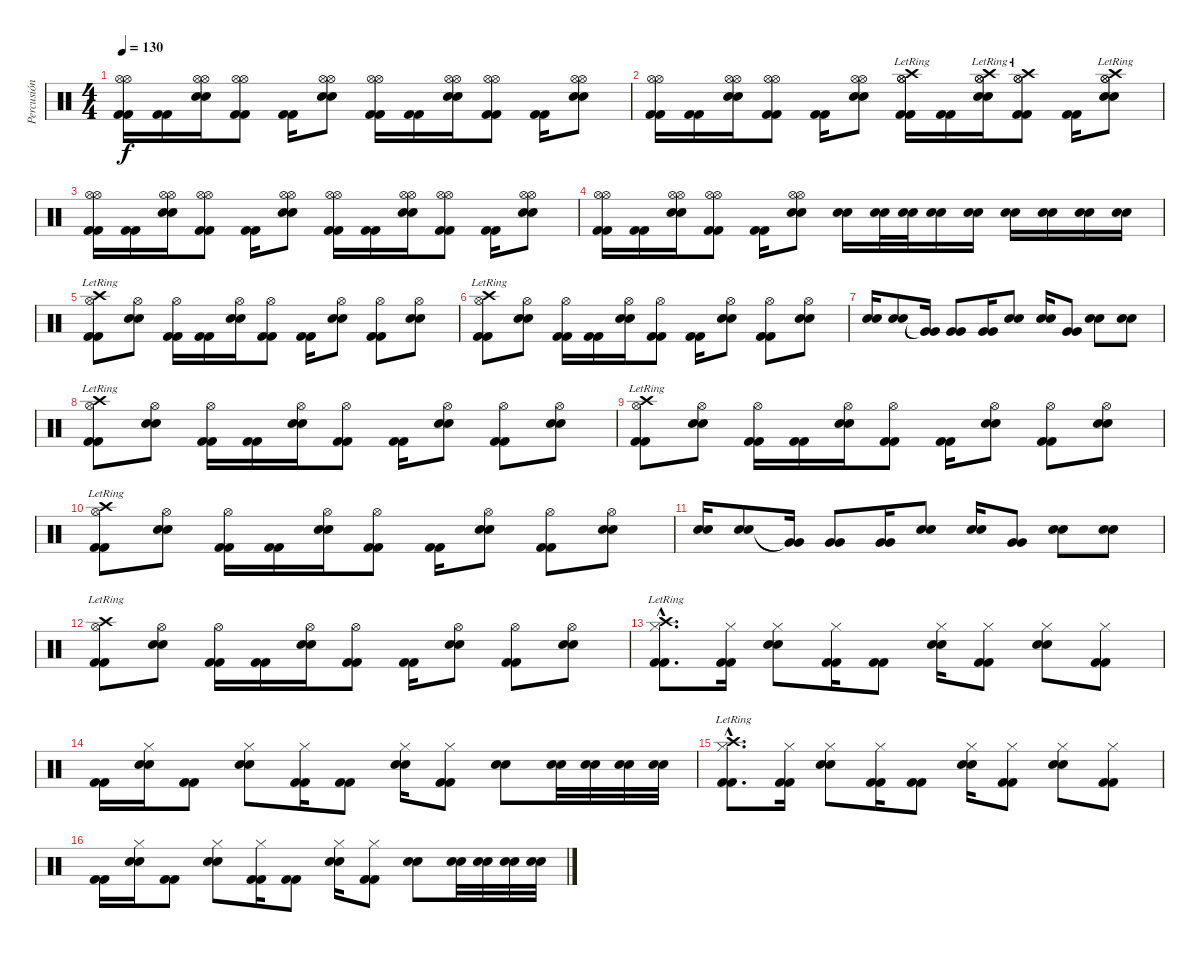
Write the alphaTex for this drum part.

\track ("Percusión" "Percusión") {instrument percussion}
\staff {score}
\articulation defaults
\ts (4 4)
\tempo 130
\clef neutral
\ks c
("Kick (hit) 2" "Kick (hit) 2" "Hi-Hat (open)" "Hi-Hat (open)").16{dy f} ("Kick (hit) 2" "Kick (hit) 2").16 ("Snare (hit) 2" "Snare (hit) 2" "Hi-Hat (open)" "Hi-Hat (open)").16 ("Kick (hit) 2" "Kick (hit) 2" "Hi-Hat (open)" "Hi-Hat (open)").8 ("Kick (hit) 2" "Kick (hit) 2").16 ("Snare (hit) 2" "Snare (hit) 2" "Hi-Hat (open)" "Hi-Hat (open)").8 ("Kick (hit) 2" "Kick (hit) 2" "Hi-Hat (open)" "Hi-Hat (open)").16 ("Kick (hit) 2" "Kick (hit) 2").16 ("Snare (hit) 2" "Snare (hit) 2" "Hi-Hat (open)" "Hi-Hat (open)").16 ("Kick (hit) 2" "Kick (hit) 2" "Hi-Hat (open)" "Hi-Hat (open)").8 ("Kick (hit) 2" "Kick (hit) 2").16 ("Snare (hit) 2" "Snare (hit) 2" "Hi-Hat (open)" "Hi-Hat (open)").8 |
("Kick (hit) 2" "Kick (hit) 2" "Hi-Hat (open)" "Hi-Hat (open)").16 ("Kick (hit) 2" "Kick (hit) 2").16 ("Snare (hit) 2" "Snare (hit) 2" "Hi-Hat (open)" "Hi-Hat (open)").16 ("Kick (hit) 2" "Kick (hit) 2" "Hi-Hat (open)" "Hi-Hat (open)").8 ("Kick (hit) 2" "Kick (hit) 2").16 ("Snare (hit) 2" "Snare (hit) 2" "Hi-Hat (open)" "Hi-Hat (open)").8 ("Kick (hit) 2" "Kick (hit) 2" "Hi-Hat (open)" "Hi-Hat (open)" "Crash high (hit)"{lr}).16 ("Kick (hit) 2" "Kick (hit) 2").16 ("Snare (hit) 2" "Snare (hit) 2" "Hi-Hat (open)" "Hi-Hat (open)" "Crash high (hit)"{lr}).16 ("Kick (hit) 2" "Kick (hit) 2" "Hi-Hat (open)" "Hi-Hat (open)" "Crash high (hit)"{lr}).8 ("Kick (hit) 2" "Kick (hit) 2").16 ("Snare (hit) 2" "Snare (hit) 2" "Hi-Hat (open)" "Hi-Hat (open)" "Crash high (hit)"{lr}).8 |
("Kick (hit) 2" "Kick (hit) 2" "Hi-Hat (open)" "Hi-Hat (open)").16 ("Kick (hit) 2" "Kick (hit) 2").16 ("Snare (hit) 2" "Snare (hit) 2" "Hi-Hat (open)" "Hi-Hat (open)").16 ("Kick (hit) 2" "Kick (hit) 2" "Hi-Hat (open)" "Hi-Hat (open)").8 ("Kick (hit) 2" "Kick (hit) 2").16 ("Snare (hit) 2" "Snare (hit) 2" "Hi-Hat (open)" "Hi-Hat (open)").8 ("Kick (hit) 2" "Kick (hit) 2" "Hi-Hat (open)" "Hi-Hat (open)").16 ("Kick (hit) 2" "Kick (hit) 2").16 ("Snare (hit) 2" "Snare (hit) 2" "Hi-Hat (open)" "Hi-Hat (open)").16 ("Kick (hit) 2" "Kick (hit) 2" "Hi-Hat (open)" "Hi-Hat (open)").8 ("Kick (hit) 2" "Kick (hit) 2").16 ("Snare (hit) 2" "Snare (hit) 2" "Hi-Hat (open)" "Hi-Hat (open)").8 |
("Kick (hit) 2" "Kick (hit) 2" "Hi-Hat (open)" "Hi-Hat (open)").16 ("Kick (hit) 2" "Kick (hit) 2").16 ("Snare (hit) 2" "Snare (hit) 2" "Hi-Hat (open)" "Hi-Hat (open)").16 ("Kick (hit) 2" "Kick (hit) 2" "Hi-Hat (open)" "Hi-Hat (open)").8 ("Kick (hit) 2" "Kick (hit) 2").16 ("Snare (hit) 2" "Snare (hit) 2" "Hi-Hat (open)" "Hi-Hat (open)").8 ("Snare (hit) 2" "Snare (hit) 2").16 ("Snare (hit) 2" "Snare (hit) 2").32 ("Snare (hit) 2" "Snare (hit) 2").32 ("Snare (hit) 2" "Snare (hit) 2").16 ("Snare (hit) 2" "Snare (hit) 2").16 ("Snare (hit) 2" "Snare (hit) 2").16 ("Snare (hit) 2" "Snare (hit) 2").16 ("Snare (hit) 2" "Snare (hit) 2").16 ("Snare (hit) 2" "Snare (hit) 2").16 |
("Kick (hit) 2" "Kick (hit) 2" "Hi-Hat (open)" "Crash high (hit)"{lr}).8 ("Snare (hit) 2" "Snare (hit) 2" "Hi-Hat (open)").8 ("Kick (hit) 2" "Kick (hit) 2" "Hi-Hat (open)").16 ("Kick (hit) 2" "Kick (hit) 2").16 ("Snare (hit) 2" "Snare (hit) 2" "Hi-Hat (open)").16 ("Kick (hit) 2" "Kick (hit) 2" "Hi-Hat (open)").8 ("Kick (hit) 2" "Kick (hit) 2").16 ("Snare (hit) 2" "Snare (hit) 2" "Hi-Hat (open)").8 ("Kick (hit) 2" "Kick (hit) 2" "Hi-Hat (open)").8 ("Snare (hit) 2" "Snare (hit) 2" "Hi-Hat (open)").8 |
("Kick (hit) 2" "Kick (hit) 2" "Hi-Hat (open)" "Crash high (hit)"{lr}).8 ("Snare (hit) 2" "Snare (hit) 2" "Hi-Hat (open)").8 ("Kick (hit) 2" "Kick (hit) 2" "Hi-Hat (open)").16 ("Kick (hit) 2" "Kick (hit) 2").16 ("Snare (hit) 2" "Snare (hit) 2" "Hi-Hat (open)").16 ("Kick (hit) 2" "Kick (hit) 2" "Hi-Hat (open)").8 ("Kick (hit) 2" "Kick (hit) 2").16 ("Snare (hit) 2" "Snare (hit) 2" "Hi-Hat (open)").8 ("Kick (hit) 2" "Kick (hit) 2" "Hi-Hat (open)").8 ("Snare (hit) 2" "Snare (hit) 2" "Hi-Hat (open)").8 |
("Snare (hit) 2" "Snare (hit) 2").16 ("Snare (hit) 2" "Snare (hit) 2").8 ("Very Low Tom (hit)"{t} "Very Low Tom (hit)"{t}).16 ("Very Low Tom (hit)" "Very Low Tom (hit)").8 ("Very Low Tom (hit)" "Very Low Tom (hit)").16 ("Snare (hit) 2" "Snare (hit) 2").8 ("Snare (hit) 2" "Snare (hit) 2").16 ("Very Low Tom (hit)" "Very Low Tom (hit)").8 ("Snare (hit) 2" "Snare (hit) 2").8 ("Snare (hit) 2" "Snare (hit) 2").8 |
("Kick (hit) 2" "Kick (hit) 2" "Hi-Hat (open)" "Crash high (hit)"{lr}).8 ("Snare (hit) 2" "Snare (hit) 2" "Hi-Hat (open)").8 ("Kick (hit) 2" "Kick (hit) 2" "Hi-Hat (open)").16 ("Kick (hit) 2" "Kick (hit) 2").16 ("Snare (hit) 2" "Snare (hit) 2" "Hi-Hat (open)").16 ("Kick (hit) 2" "Kick (hit) 2" "Hi-Hat (open)").8 ("Kick (hit) 2" "Kick (hit) 2").16 ("Snare (hit) 2" "Snare (hit) 2" "Hi-Hat (open)").8 ("Kick (hit) 2" "Kick (hit) 2" "Hi-Hat (open)").8 ("Snare (hit) 2" "Snare (hit) 2" "Hi-Hat (open)").8 |
("Kick (hit) 2" "Kick (hit) 2" "Hi-Hat (open)" "Crash high (hit)"{lr}).8 ("Snare (hit) 2" "Snare (hit) 2" "Hi-Hat (open)").8 ("Kick (hit) 2" "Kick (hit) 2" "Hi-Hat (open)").16 ("Kick (hit) 2" "Kick (hit) 2").16 ("Snare (hit) 2" "Snare (hit) 2" "Hi-Hat (open)").16 ("Kick (hit) 2" "Kick (hit) 2" "Hi-Hat (open)").8 ("Kick (hit) 2" "Kick (hit) 2").16 ("Snare (hit) 2" "Snare (hit) 2" "Hi-Hat (open)").8 ("Kick (hit) 2" "Kick (hit) 2" "Hi-Hat (open)").8 ("Snare (hit) 2" "Snare (hit) 2" "Hi-Hat (open)").8 |
("Kick (hit) 2" "Kick (hit) 2" "Hi-Hat (open)" "Crash high (hit)"{lr}).8 ("Snare (hit) 2" "Snare (hit) 2" "Hi-Hat (open)").8 ("Kick (hit) 2" "Kick (hit) 2" "Hi-Hat (open)").16 ("Kick (hit) 2" "Kick (hit) 2").16 ("Snare (hit) 2" "Snare (hit) 2" "Hi-Hat (open)").16 ("Kick (hit) 2" "Kick (hit) 2" "Hi-Hat (open)").8 ("Kick (hit) 2" "Kick (hit) 2").16 ("Snare (hit) 2" "Snare (hit) 2" "Hi-Hat (open)").8 ("Kick (hit) 2" "Kick (hit) 2" "Hi-Hat (open)").8 ("Snare (hit) 2" "Snare (hit) 2" "Hi-Hat (open)").8 |
("Snare (hit) 2" "Snare (hit) 2").16 ("Snare (hit) 2" "Snare (hit) 2").8 ("Very Low Tom (hit)"{t} "Very Low Tom (hit)"{t}).16 ("Very Low Tom (hit)" "Very Low Tom (hit)").8 ("Very Low Tom (hit)" "Very Low Tom (hit)").16 ("Snare (hit) 2" "Snare (hit) 2").8 ("Snare (hit) 2" "Snare (hit) 2").16 ("Very Low Tom (hit)" "Very Low Tom (hit)").8 ("Snare (hit) 2" "Snare (hit) 2").8 ("Snare (hit) 2" "Snare (hit) 2").8 |
("Kick (hit) 2" "Kick (hit) 2" "Hi-Hat (open)" "Crash high (hit)"{lr}).8 ("Snare (hit) 2" "Snare (hit) 2" "Hi-Hat (open)").8 ("Kick (hit) 2" "Kick (hit) 2" "Hi-Hat (open)").16 ("Kick (hit) 2" "Kick (hit) 2").16 ("Snare (hit) 2" "Snare (hit) 2" "Hi-Hat (open)").16 ("Kick (hit) 2" "Kick (hit) 2" "Hi-Hat (open)").8 ("Kick (hit) 2" "Kick (hit) 2").16 ("Snare (hit) 2" "Snare (hit) 2" "Hi-Hat (open)").8 ("Kick (hit) 2" "Kick (hit) 2" "Hi-Hat (open)").8 ("Snare (hit) 2" "Snare (hit) 2" "Hi-Hat (open)").8 |
("Kick (hit) 2"{hac} "Kick (hit) 2"{hac} "Hi-Hat (closed)"{hac} "Crash high (hit)"{hac lr}).8{d} ("Kick (hit) 2" "Kick (hit) 2" "Hi-Hat (closed)").16 ("Snare (hit) 2" "Snare (hit) 2" "Hi-Hat (closed)").8 ("Kick (hit) 2" "Kick (hit) 2" "Hi-Hat (closed)").16 ("Kick (hit) 2" "Kick (hit) 2").8 ("Snare (hit) 2" "Snare (hit) 2" "Hi-Hat (closed)").16 ("Kick (hit) 2" "Kick (hit) 2" "Hi-Hat (closed)").8 ("Snare (hit) 2" "Snare (hit) 2" "Hi-Hat (closed)").8 ("Kick (hit) 2" "Kick (hit) 2" "Hi-Hat (closed)").8 |
("Kick (hit) 2" "Kick (hit) 2").16 ("Snare (hit) 2" "Snare (hit) 2" "Hi-Hat (closed)").16 ("Kick (hit) 2" "Kick (hit) 2").8 ("Snare (hit) 2" "Snare (hit) 2" "Hi-Hat (closed)").8 ("Kick (hit) 2" "Kick (hit) 2" "Hi-Hat (closed)").16 ("Kick (hit) 2" "Kick (hit) 2").8 ("Snare (hit) 2" "Snare (hit) 2" "Hi-Hat (closed)").16 ("Kick (hit) 2" "Kick (hit) 2" "Hi-Hat (closed)").8 ("Snare (hit) 2" "Snare (hit) 2").8 ("Snare (hit) 2" "Snare (hit) 2").32 ("Snare (hit) 2" "Snare (hit) 2").32 ("Snare (hit) 2" "Snare (hit) 2").32 ("Snare (hit) 2" "Snare (hit) 2").32 |
("Kick (hit) 2"{hac} "Kick (hit) 2"{hac} "Hi-Hat (closed)"{hac} "Crash high (hit)"{hac lr}).8{d} ("Kick (hit) 2" "Kick (hit) 2" "Hi-Hat (closed)").16 ("Snare (hit) 2" "Snare (hit) 2" "Hi-Hat (closed)").8 ("Kick (hit) 2" "Kick (hit) 2" "Hi-Hat (closed)").16 ("Kick (hit) 2" "Kick (hit) 2").8 ("Snare (hit) 2" "Snare (hit) 2" "Hi-Hat (closed)").16 ("Kick (hit) 2" "Kick (hit) 2" "Hi-Hat (closed)").8 ("Snare (hit) 2" "Snare (hit) 2" "Hi-Hat (closed)").8 ("Kick (hit) 2" "Kick (hit) 2" "Hi-Hat (closed)").8 |
("Kick (hit) 2" "Kick (hit) 2").16 ("Snare (hit) 2" "Snare (hit) 2" "Hi-Hat (closed)").16 ("Kick (hit) 2" "Kick (hit) 2").8 ("Snare (hit) 2" "Snare (hit) 2" "Hi-Hat (closed)").8 ("Kick (hit) 2" "Kick (hit) 2" "Hi-Hat (closed)").16 ("Kick (hit) 2" "Kick (hit) 2").8 ("Snare (hit) 2" "Snare (hit) 2" "Hi-Hat (closed)").16 ("Kick (hit) 2" "Kick (hit) 2" "Hi-Hat (closed)").8 ("Snare (hit) 2" "Snare (hit) 2").8 ("Snare (hit) 2" "Snare (hit) 2").32 ("Snare (hit) 2" "Snare (hit) 2").32 ("Snare (hit) 2" "Snare (hit) 2").32 ("Snare (hit) 2" "Snare (hit) 2").32
